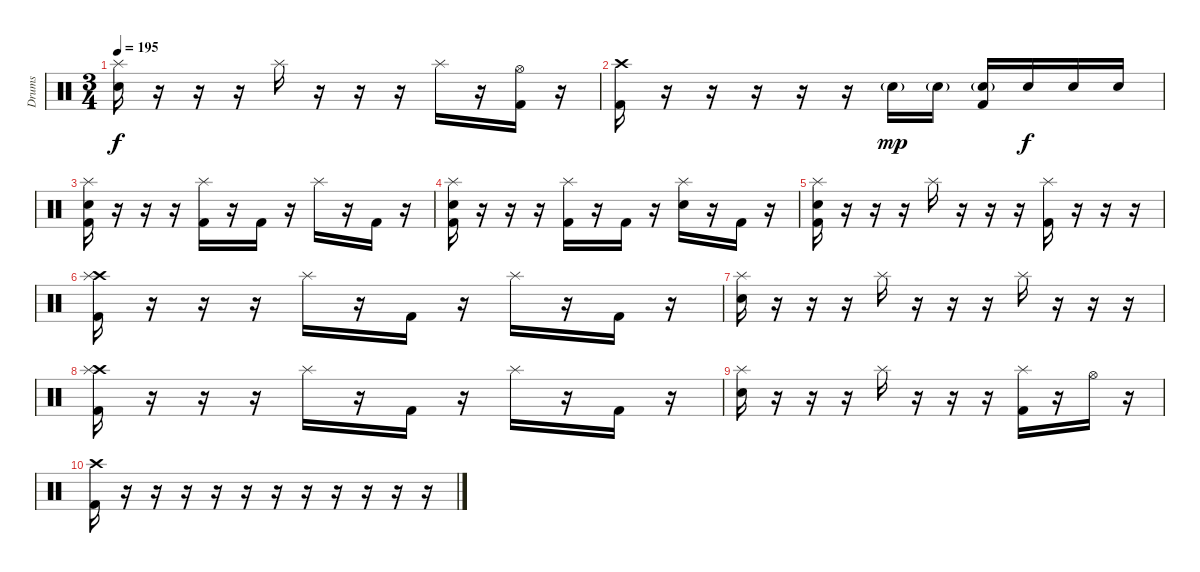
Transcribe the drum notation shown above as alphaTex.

\track ("Drums" "Drums") {instrument percussion}
\staff {score}
\articulation defaults
\ts (3 4)
\tempo 195
\clef neutral
\ks c
("Splash (hit)" "Snare (hit) 2").16{dy f} r.16 r.16 r.16 "Splash (hit)".16 r.16 r.16 r.16 "Splash (hit)".16 r.16 ("Hi-Hat (open)" "Kick (hit) 2").16 r.16 |
("Crash high (hit)" "Kick (hit) 2").16 r.16 r.16 r.16 r.16 r.16 "Snare (hit) 2"{g}.16{dy mp} "Snare (hit) 2"{g}.16 ("Snare (hit) 2"{g} "Kick (hit) 2").16 "Snare (hit) 2".16{dy f} "Snare (hit) 2".16 "Snare (hit) 2".16 |
("Splash (hit)" "Snare (hit) 2" "Kick (hit) 2").16 r.16 r.16 r.16 ("Splash (hit)" "Kick (hit) 2").16 r.16 "Kick (hit) 2".16 r.16 "Splash (hit)".16 r.16 "Kick (hit) 2".16 r.16 |
("Splash (hit)" "Snare (hit) 2" "Kick (hit) 2").16 r.16 r.16 r.16 ("Splash (hit)" "Kick (hit) 2").16 r.16 "Kick (hit) 2".16 r.16 ("Splash (hit)" "Snare (hit) 2").16 r.16 "Kick (hit) 2".16 r.16 |
("Splash (hit)" "Snare (hit) 2" "Kick (hit) 2").16 r.16 r.16 r.16 "Splash (hit)".16 r.16 r.16 r.16 ("Splash (hit)" "Kick (hit) 2").16 r.16 r.16 r.16 |
("Crash high (hit)" "Splash (hit)" "Kick (hit) 2").16 r.16 r.16 r.16 "Splash (hit)".16 r.16 "Kick (hit) 2".16 r.16 "Splash (hit)".16 r.16 "Kick (hit) 2".16 r.16 |
("Splash (hit)" "Snare (hit) 2").16 r.16 r.16 r.16 "Splash (hit)".16 r.16 r.16 r.16 "Splash (hit)".16 r.16 r.16 r.16 |
("Crash high (hit)" "Splash (hit)" "Kick (hit) 2").16 r.16 r.16 r.16 "Splash (hit)".16 r.16 "Kick (hit) 2".16 r.16 "Splash (hit)".16 r.16 "Kick (hit) 2".16 r.16 |
("Splash (hit)" "Snare (hit) 2").16 r.16 r.16 r.16 "Splash (hit)".16 r.16 r.16 r.16 ("Splash (hit)" "Kick (hit) 2").16 r.16 "Hi-Hat (open)".16 r.16 |
("Crash high (hit)" "Kick (hit) 2").16 r.16 r.16 r.16 r.16 r.16 r.16 r.16 r.16 r.16 r.16 r.16
